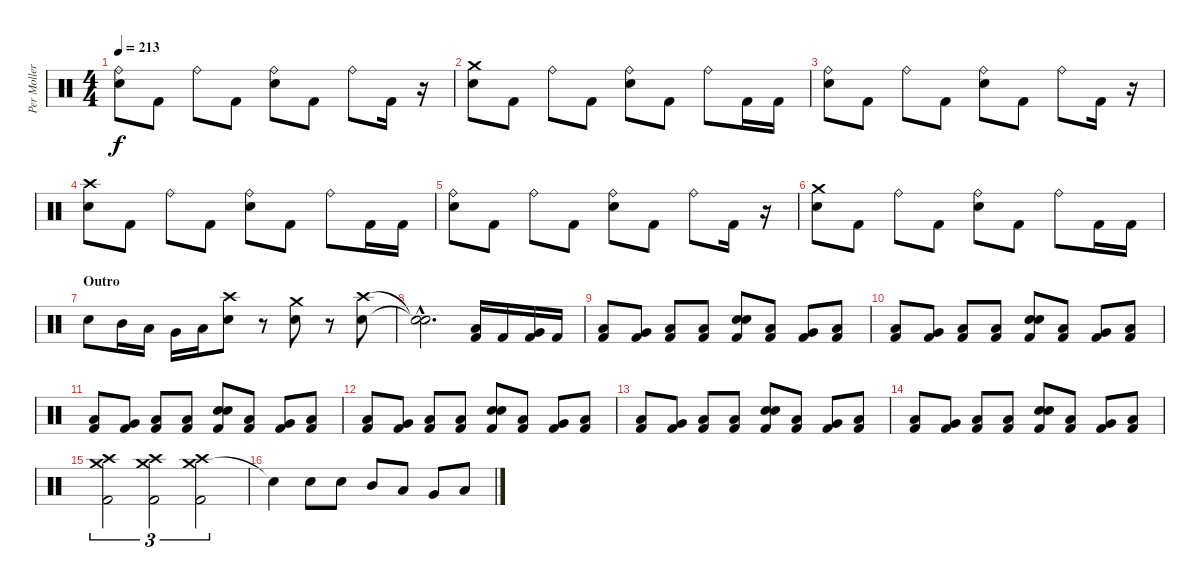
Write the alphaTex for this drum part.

\track ("Per Moller Jensen" "Per Moller") {instrument percussion}
\staff {score}
\articulation defaults
\ts (4 4)
\tempo 213
\clef neutral
\ks c
("Ride (bell)" "Snare (hit) 2").8{dy f} "Kick (hit) 2".8 "Ride (bell)".8 "Kick (hit) 2".8 ("Ride (bell)" "Snare (hit) 2").8 "Kick (hit) 2".8 "Ride (bell)".8 "Kick (hit) 2".16 r.16 |
("Crash medium (hit)" "Snare (hit) 2").8 "Kick (hit) 2".8 "Ride (bell)".8 "Kick (hit) 2".8 ("Ride (bell)" "Snare (hit) 2").8 "Kick (hit) 2".8 "Ride (bell)".8 "Kick (hit) 2".16 "Kick (hit) 2".16 |
("Ride (bell)" "Snare (hit) 2").8 "Kick (hit) 2".8 "Ride (bell)".8 "Kick (hit) 2".8 ("Ride (bell)" "Snare (hit) 2").8 "Kick (hit) 2".8 "Ride (bell)".8 "Kick (hit) 2".16 r.16 |
("Crash high (hit)" "Snare (hit) 2").8 "Kick (hit) 2".8 "Ride (bell)".8 "Kick (hit) 2".8 ("Ride (bell)" "Snare (hit) 2").8 "Kick (hit) 2".8 "Ride (bell)".8 "Kick (hit) 2".16 "Kick (hit) 2".16 |
("Ride (bell)" "Snare (hit) 2").8 "Kick (hit) 2".8 "Ride (bell)".8 "Kick (hit) 2".8 ("Ride (bell)" "Snare (hit) 2").8 "Kick (hit) 2".8 "Ride (bell)".8 "Kick (hit) 2".16 r.16 |
("Crash medium (hit)" "Snare (hit) 2").8 "Kick (hit) 2".8 "Ride (bell)".8 "Kick (hit) 2".8 ("Ride (bell)" "Snare (hit) 2").8 "Kick (hit) 2".8 "Ride (bell)".8 "Kick (hit) 2".16 "Kick (hit) 2".16 |
\section ("" "Outro")
"Snare (hit) 2".8 "Mid Tom (hit)".16 "Low Tom (hit)".16 "Very Low Tom (hit)".16 "Low Floor Tom (hit)".16 ("Crash high (hit)" "Snare (hit) 2").8 r.8 ("Crash medium (hit)" "Snare (hit) 2").8 r.8 ("Crash high (hit)" "Snare (hit) 2").8 |
("Snare (hit)"{hac t} "Snare (hit)"{hac t}).2{d} ("Low Tom (hit)" "Kick (hit) 2").16 "Kick (hit) 2".16 ("Very Low Tom (hit)" "Kick (hit) 2").16 "Kick (hit) 2".16 |
("Low Tom (hit)" "Kick (hit) 2").8 ("Very Low Tom (hit)" "Kick (hit) 2").8 ("Low Tom (hit)" "Kick (hit) 2").8 ("Low Floor Tom (hit)" "Kick (hit) 2").8 ("Snare (hit) 2" "Snare (hit) 2" "Kick (hit) 2").8 ("Low Tom (hit)" "Kick (hit) 2").8 ("Very Low Tom (hit)" "Kick (hit) 2").8 ("Low Tom (hit)" "Kick (hit) 2").8 |
("Low Tom (hit)" "Kick (hit) 2").8 ("Very Low Tom (hit)" "Kick (hit) 2").8 ("Low Tom (hit)" "Kick (hit) 2").8 ("Low Floor Tom (hit)" "Kick (hit) 2").8 ("Snare (hit) 2" "Snare (hit) 2" "Kick (hit) 2").8 ("Low Tom (hit)" "Kick (hit) 2").8 ("Very Low Tom (hit)" "Kick (hit) 2").8 ("Low Tom (hit)" "Kick (hit) 2").8 |
("Low Tom (hit)" "Kick (hit) 2").8 ("Very Low Tom (hit)" "Kick (hit) 2").8 ("Low Tom (hit)" "Kick (hit) 2").8 ("Low Floor Tom (hit)" "Kick (hit) 2").8 ("Snare (hit) 2" "Snare (hit) 2" "Kick (hit) 2").8 ("Low Tom (hit)" "Kick (hit) 2").8 ("Very Low Tom (hit)" "Kick (hit) 2").8 ("Low Tom (hit)" "Kick (hit) 2").8 |
("Low Tom (hit)" "Kick (hit) 2").8 ("Very Low Tom (hit)" "Kick (hit) 2").8 ("Low Tom (hit)" "Kick (hit) 2").8 ("Low Floor Tom (hit)" "Kick (hit) 2").8 ("Snare (hit) 2" "Snare (hit) 2" "Kick (hit) 2").8 ("Low Tom (hit)" "Kick (hit) 2").8 ("Very Low Tom (hit)" "Kick (hit) 2").8 ("Low Tom (hit)" "Kick (hit) 2").8 |
("Low Tom (hit)" "Kick (hit) 2").8 ("Very Low Tom (hit)" "Kick (hit) 2").8 ("Low Tom (hit)" "Kick (hit) 2").8 ("Low Floor Tom (hit)" "Kick (hit) 2").8 ("Snare (hit) 2" "Snare (hit) 2" "Kick (hit) 2").8 ("Low Tom (hit)" "Kick (hit) 2").8 ("Very Low Tom (hit)" "Kick (hit) 2").8 ("Low Tom (hit)" "Kick (hit) 2").8 |
("Low Tom (hit)" "Kick (hit) 2").8 ("Very Low Tom (hit)" "Kick (hit) 2").8 ("Low Tom (hit)" "Kick (hit) 2").8 ("Low Floor Tom (hit)" "Kick (hit) 2").8 ("Snare (hit) 2" "Snare (hit) 2" "Kick (hit) 2").8 ("Low Tom (hit)" "Kick (hit) 2").8 ("Very Low Tom (hit)" "Kick (hit) 2").8 ("Low Tom (hit)" "Kick (hit) 2").8 |
("Crash high (hit)" "Crash medium (hit)" "Kick (hit) 2").2{tu (3 2)} ("Crash high (hit)" "Crash medium (hit)" "Kick (hit) 2").2{tu (3 2)} ("Crash medium (hit)" "Crash high (hit)" "Kick (hit) 2").2{tu (3 2)} |
"Snare (hit)"{t}.4 "Snare (hit) 2".8 "Snare (hit) 2".8 "Mid Tom (hit)".8 "Low Tom (hit)".8 "Very Low Tom (hit)".8 "Low Floor Tom (hit)".8
